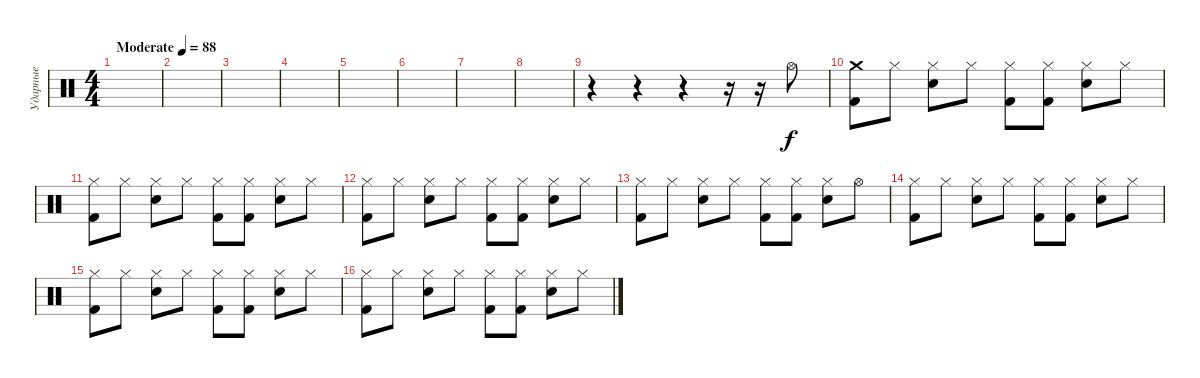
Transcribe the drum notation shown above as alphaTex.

\track ("Ударные" "Ударные") {instrument percussion}
\staff {score}
\articulation defaults
\ts (4 4)
\tempo (88 "Moderate")
\clef neutral
\ks c
|
|
|
|
|
|
|
|
r.4 r.4 r.4 r.16 r.16 "Hi-Hat (open)".8 |
("Crash medium (hit)" "Kick (hit) 2").8 "Hi-Hat (closed)".8 ("Hi-Hat (closed)" "Electric Snare (hit)").8 "Hi-Hat (closed)".8 ("Hi-Hat (closed)" "Kick (hit) 2").8 ("Hi-Hat (closed)" "Kick (hit) 2").8 ("Hi-Hat (closed)" "Electric Snare (hit)").8 "Hi-Hat (closed)".8 |
("Hi-Hat (closed)" "Kick (hit) 2").8 "Hi-Hat (closed)".8 ("Hi-Hat (closed)" "Electric Snare (hit)").8 "Hi-Hat (closed)".8 ("Hi-Hat (closed)" "Kick (hit) 2").8 ("Hi-Hat (closed)" "Kick (hit) 2").8 ("Hi-Hat (closed)" "Electric Snare (hit)").8 "Hi-Hat (closed)".8 |
("Hi-Hat (closed)" "Kick (hit) 2").8 "Hi-Hat (closed)".8 ("Hi-Hat (closed)" "Electric Snare (hit)").8 "Hi-Hat (closed)".8 ("Hi-Hat (closed)" "Kick (hit) 2").8 ("Hi-Hat (closed)" "Kick (hit) 2").8 ("Hi-Hat (closed)" "Electric Snare (hit)").8 "Hi-Hat (closed)".8 |
("Hi-Hat (closed)" "Kick (hit) 2").8 "Hi-Hat (closed)".8 ("Hi-Hat (closed)" "Electric Snare (hit)").8 "Hi-Hat (closed)".8 ("Hi-Hat (closed)" "Kick (hit) 2").8 ("Hi-Hat (closed)" "Kick (hit) 2").8 ("Hi-Hat (closed)" "Electric Snare (hit)").8 "Hi-Hat (open)".8 |
("Hi-Hat (closed)" "Kick (hit) 2").8 "Hi-Hat (closed)".8 ("Hi-Hat (closed)" "Electric Snare (hit)").8 "Hi-Hat (closed)".8 ("Hi-Hat (closed)" "Kick (hit) 2").8 ("Hi-Hat (closed)" "Kick (hit) 2").8 ("Hi-Hat (closed)" "Electric Snare (hit)").8 "Hi-Hat (closed)".8 |
("Hi-Hat (closed)" "Kick (hit) 2").8 "Hi-Hat (closed)".8 ("Hi-Hat (closed)" "Electric Snare (hit)").8 "Hi-Hat (closed)".8 ("Hi-Hat (closed)" "Kick (hit) 2").8 ("Hi-Hat (closed)" "Kick (hit) 2").8 ("Hi-Hat (closed)" "Electric Snare (hit)").8 "Hi-Hat (closed)".8 |
("Hi-Hat (closed)" "Kick (hit) 2").8 "Hi-Hat (closed)".8 ("Hi-Hat (closed)" "Electric Snare (hit)").8 "Hi-Hat (closed)".8 ("Hi-Hat (closed)" "Kick (hit) 2").8 ("Hi-Hat (closed)" "Kick (hit) 2").8 ("Hi-Hat (closed)" "Electric Snare (hit)").8 "Hi-Hat (closed)".8
